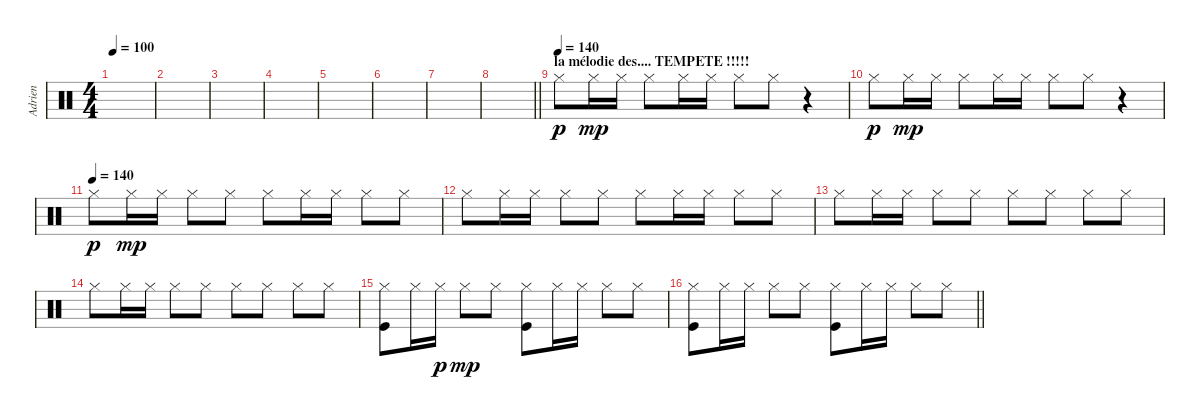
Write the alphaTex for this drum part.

\track ("Adrien" "Adrien") {instrument percussion}
\staff {score}
\articulation defaults
\ts (4 4)
\tempo 100
\clef neutral
\ks c
|
|
|
|
|
|
|
\barLineRight lightlight
|
\section ("" "la mélodie des.... TEMPETE !!!!!")
\tempo (140)
"Hi-Hat (closed)".8{dy p} "Hi-Hat (closed)".16{dy mp} "Hi-Hat (closed)".16 "Hi-Hat (closed)".8 "Hi-Hat (closed)".16 "Hi-Hat (closed)".16 "Hi-Hat (closed)".8 "Hi-Hat (closed)".8 r.4 |
"Hi-Hat (closed)".8{dy p} "Hi-Hat (closed)".16{dy mp} "Hi-Hat (closed)".16 "Hi-Hat (closed)".8 "Hi-Hat (closed)".16 "Hi-Hat (closed)".16 "Hi-Hat (closed)".8 "Hi-Hat (closed)".8 r.4 |
\tempo (140)
"Hi-Hat (closed)".8{dy p} "Hi-Hat (closed)".16{dy mp} "Hi-Hat (closed)".16 "Hi-Hat (closed)".8 "Hi-Hat (closed)".8 "Hi-Hat (closed)".8 "Hi-Hat (closed)".16 "Hi-Hat (closed)".16 "Hi-Hat (closed)".8 "Hi-Hat (closed)".8 |
"Hi-Hat (closed)".8 "Hi-Hat (closed)".16 "Hi-Hat (closed)".16 "Hi-Hat (closed)".8 "Hi-Hat (closed)".8 "Hi-Hat (closed)".8 "Hi-Hat (closed)".16 "Hi-Hat (closed)".16 "Hi-Hat (closed)".8 "Hi-Hat (closed)".8 |
"Hi-Hat (closed)".8 "Hi-Hat (closed)".16 "Hi-Hat (closed)".16 "Hi-Hat (closed)".8 "Hi-Hat (closed)".8 "Hi-Hat (closed)".8 "Hi-Hat (closed)".8 "Hi-Hat (closed)".8 "Hi-Hat (closed)".8 |
"Hi-Hat (closed)".8 "Hi-Hat (closed)".16 "Hi-Hat (closed)".16 "Hi-Hat (closed)".8 "Hi-Hat (closed)".8 "Hi-Hat (closed)".8 "Hi-Hat (closed)".8 "Hi-Hat (closed)".8 "Hi-Hat (closed)".8 |
("Kick (hit)" "Hi-Hat (closed)").8 "Hi-Hat (closed)".16 "Hi-Hat (closed)".16{dy p} "Hi-Hat (closed)".8{dy mp} "Hi-Hat (closed)".8 ("Kick (hit)" "Hi-Hat (closed)").8 "Hi-Hat (closed)".16 "Hi-Hat (closed)".16 "Hi-Hat (closed)".8 "Hi-Hat (closed)".8 |
\barLineRight lightlight
("Kick (hit)" "Hi-Hat (closed)").8 "Hi-Hat (closed)".16 "Hi-Hat (closed)".16 "Hi-Hat (closed)".8 "Hi-Hat (closed)".8 ("Kick (hit)" "Hi-Hat (closed)").8 "Hi-Hat (closed)".16 "Hi-Hat (closed)".16 "Hi-Hat (closed)".8 "Hi-Hat (closed)".8
